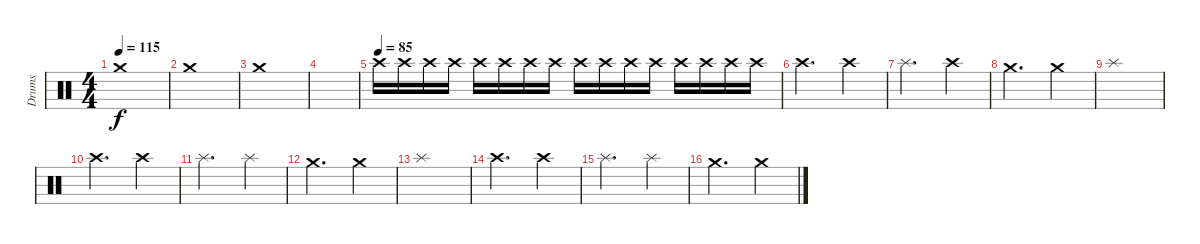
\track ("Drums" "Drums") {instrument percussion}
\staff {score}
\articulation defaults
\ts (4 4)
\tempo 115
\clef neutral
\ks c "Crash medium (hit)".1{dy f}
|
"Crash medium (hit)".1 |
"Crash medium (hit)".1 |
|
\tempo (85)
"Crash high (hit)".16{volume 8} "Crash high (hit)".16 "Crash high (hit)".16 "Crash high (hit)".16 "Crash high (hit)".16 "Crash high (hit)".16 "Crash high (hit)".16 "Crash high (hit)".16 "Crash high (hit)".16 "Crash high (hit)".16 "Crash high (hit)".16 "Crash high (hit)".16 "Crash high (hit)".16 "Crash high (hit)".16 "Crash high (hit)".16 "Crash high (hit)".16 |
"Crash high (hit)".2{d} "Crash high (hit)".4 |
"Splash (hit)".2{d} "Crash high (hit)".4 |
"Crash medium (hit)".2{d} "Crash medium (hit)".4 |
"Splash (hit)".1 |
"Crash high (hit)".2{d} "Crash high (hit)".4 |
"Splash (hit)".2{d} "Splash (hit)".4 |
"Crash medium (hit)".2{d} "Crash medium (hit)".4 |
"Splash (hit)".1 |
"Crash high (hit)".2{d} "Crash high (hit)".4 |
"Splash (hit)".2{d} "Splash (hit)".4 |
"Crash medium (hit)".2{d} "Crash medium (hit)".4
